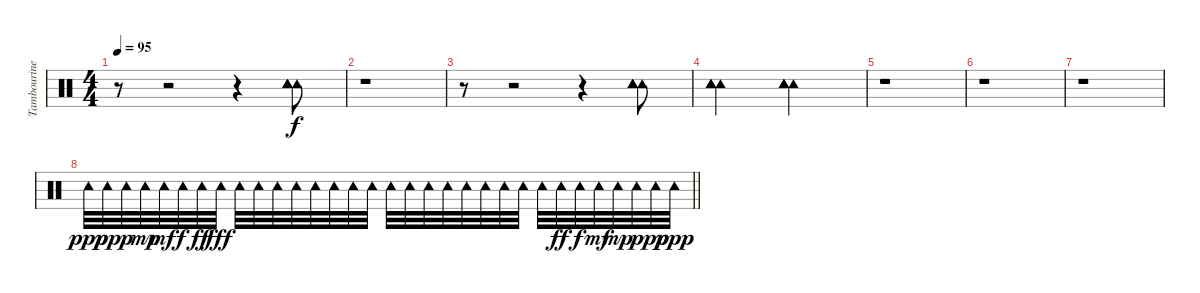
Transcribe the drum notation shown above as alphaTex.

\track ("Tambourine" "Tambourine") {instrument percussion}
\staff {score}
\articulation defaults
\ts (4 4)
\tempo 95
\clef neutral
\ks c
r.8{dy f} r.2 r.4 ("Tambourine (hit)" "Tambourine (hit)" "Tambourine (hit)" "Tambourine (hit)" "Tambourine (hit)" "Tambourine (hit)").8 |
r.1 |
r.8 r.2 r.4 ("Tambourine (hit)" "Tambourine (hit)" "Tambourine (hit)" "Tambourine (hit)" "Tambourine (hit)" "Tambourine (hit)").8 |
("Tambourine (hit)" "Tambourine (hit)" "Tambourine (hit)" "Tambourine (hit)" "Tambourine (hit)" "Tambourine (hit)").2 ("Tambourine (hit)" "Tambourine (hit)" "Tambourine (hit)" "Tambourine (hit)" "Tambourine (hit)" "Tambourine (hit)").2 |
r.1 |
r.1 |
r.1 |
\barLineRight lightlight "Tambourine (hit)".32{dy ppp} "Tambourine (hit)".32{dy pp} "Tambourine (hit)".32{dy p} "Tambourine (hit)".32{dy mp} "Tambourine (hit)".32{dy mf} "Tambourine (hit)".32{dy f} "Tambourine (hit)".32{dy ff} "Tambourine (hit)".32{dy fff} "Tambourine (hit)".32 "Tambourine (hit)".32 "Tambourine (hit)".32 "Tambourine (hit)".32 "Tambourine (hit)".32 "Tambourine (hit)".32 "Tambourine (hit)".32 "Tambourine (hit)".32 "Tambourine (hit)".32 "Tambourine (hit)".32 "Tambourine (hit)".32 "Tambourine (hit)".32 "Tambourine (hit)".32 "Tambourine (hit)".32 "Tambourine (hit)".32 "Tambourine (hit)".32 "Tambourine (hit)".32 "Tambourine (hit)".32{dy ff} "Tambourine (hit)".32{dy f} "Tambourine (hit)".32{dy mf} "Tambourine (hit)".32{dy mp} "Tambourine (hit)".32{dy p} "Tambourine (hit)".32{dy pp} "Tambourine (hit)".32{dy ppp}
